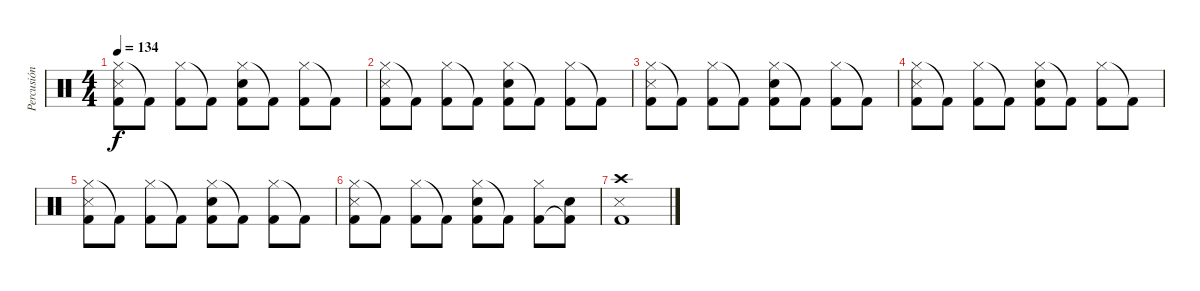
\track ("Percusión" "Percusión") {instrument percussion}
\staff {score}
\articulation defaults
\ts (4 4)
\tempo 134
\clef neutral
\ks c
("Hi-Hat (closed)" "Snare (side stick) 3" "Kick (hit) 2").8{dy f} "Kick (hit) 2"{t}.8 ("Hi-Hat (closed)" "Kick (hit) 2").8 "Kick (hit) 2"{t}.8 ("Hi-Hat (closed)" "Snare (hit) 2" "Kick (hit) 2").8 "Kick (hit) 2"{t}.8 ("Hi-Hat (closed)" "Kick (hit) 2").8 "Kick (hit) 2"{t}.8 |
("Hi-Hat (closed)" "Snare (side stick) 3" "Kick (hit) 2").8 "Kick (hit) 2"{t}.8 ("Hi-Hat (closed)" "Kick (hit) 2").8 "Kick (hit) 2"{t}.8 ("Hi-Hat (closed)" "Snare (hit) 2" "Kick (hit) 2").8 "Kick (hit) 2"{t}.8 ("Hi-Hat (closed)" "Kick (hit) 2").8 "Kick (hit) 2"{t}.8 |
("Hi-Hat (closed)" "Snare (side stick) 3" "Kick (hit) 2").8 "Kick (hit) 2"{t}.8 ("Hi-Hat (closed)" "Kick (hit) 2").8 "Kick (hit) 2"{t}.8 ("Hi-Hat (closed)" "Snare (hit) 2" "Kick (hit) 2").8 "Kick (hit) 2"{t}.8 ("Hi-Hat (closed)" "Kick (hit) 2").8 "Kick (hit) 2"{t}.8 |
("Hi-Hat (closed)" "Snare (side stick) 3" "Kick (hit) 2").8 "Kick (hit) 2"{t}.8 ("Hi-Hat (closed)" "Kick (hit) 2").8 "Kick (hit) 2"{t}.8 ("Hi-Hat (closed)" "Snare (hit) 2" "Kick (hit) 2").8 "Kick (hit) 2"{t}.8 ("Hi-Hat (closed)" "Kick (hit) 2").8 "Kick (hit) 2"{t}.8 |
("Hi-Hat (closed)" "Snare (side stick) 3" "Kick (hit) 2").8 "Kick (hit) 2"{t}.8 ("Hi-Hat (closed)" "Kick (hit) 2").8 "Kick (hit) 2"{t}.8 ("Hi-Hat (closed)" "Snare (hit) 2" "Kick (hit) 2").8 "Kick (hit) 2"{t}.8 ("Hi-Hat (closed)" "Kick (hit) 2").8 "Kick (hit) 2"{t}.8 |
("Hi-Hat (closed)" "Snare (side stick) 3" "Kick (hit) 2").8 "Kick (hit) 2"{t}.8 ("Hi-Hat (closed)" "Kick (hit) 2").8 "Kick (hit) 2"{t}.8 ("Hi-Hat (closed)" "Snare (hit) 2" "Kick (hit) 2").8 "Kick (hit) 2"{t}.8 ("Hi-Hat (closed)" "Kick (hit) 2").8 ("Electric Snare (hit)" "Kick (hit) 2"{t}).8 |
("Crash high (hit)" "Snare (side stick) 3" "Kick (hit) 2").1
